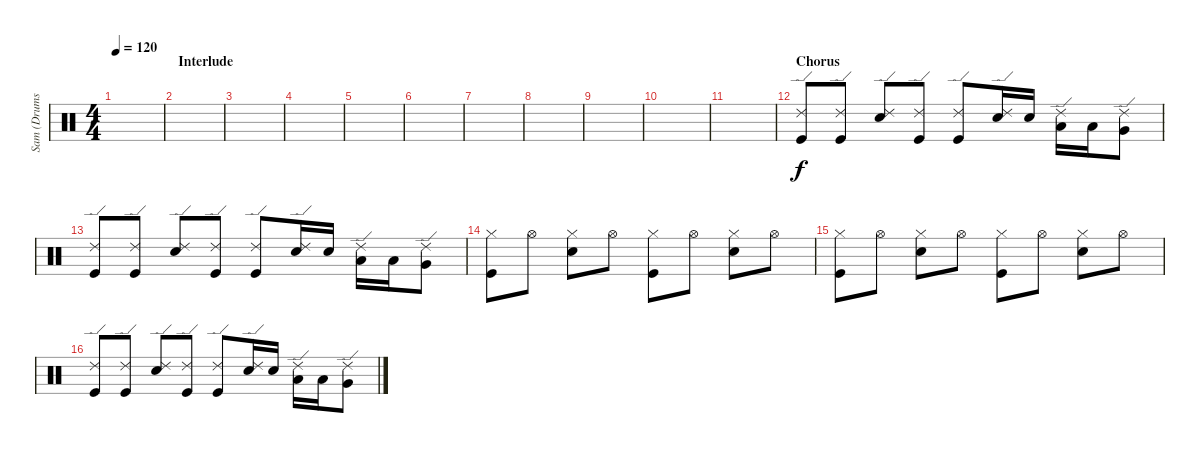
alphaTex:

\track ("Sam (Drums)" "Sam (Drums") {instrument percussion}
\staff {score}
\articulation defaults
\ts (4 4)
\tempo 120
\clef neutral
\ks c
|
\section ("" "Interlude")
|
|
|
|
|
|
|
|
|
|
\section ("" "Chorus")
("Ride (edge) 2" "Kick (hit)").8 ("Ride (edge) 2" "Kick (hit)").8 ("Ride (edge) 2" "Snare (hit) 2").8 ("Ride (edge) 2" "Kick (hit)").8 ("Ride (edge) 2" "Kick (hit)").8 ("Ride (edge) 2" "Snare (hit) 2").16 "Snare (hit) 2".16 ("Ride (edge) 2" "Low Tom (hit)").16 "Low Tom (hit)".16 ("Ride (edge) 2" "Very Low Tom (hit)").8 |
("Ride (edge) 2" "Kick (hit)").8 ("Ride (edge) 2" "Kick (hit)").8 ("Ride (edge) 2" "Snare (hit) 2").8 ("Ride (edge) 2" "Kick (hit)").8 ("Ride (edge) 2" "Kick (hit)").8 ("Ride (edge) 2" "Snare (hit) 2").16 "Snare (hit) 2".16 ("Ride (edge) 2" "Low Tom (hit)").16 "Low Tom (hit)".16 ("Ride (edge) 2" "Very Low Tom (hit)").8 |
("Hi-Hat (closed)" "Kick (hit)").8 "Hi-Hat (open)".8 ("Hi-Hat (closed)" "Snare (hit) 2").8 "Hi-Hat (open)".8 ("Hi-Hat (closed)" "Kick (hit)").8 "Hi-Hat (open)".8 ("Hi-Hat (closed)" "Snare (hit) 2").8 "Hi-Hat (open)".8 |
("Hi-Hat (closed)" "Kick (hit)").8 "Hi-Hat (open)".8 ("Hi-Hat (closed)" "Snare (hit) 2").8 "Hi-Hat (open)".8 ("Hi-Hat (closed)" "Kick (hit)").8 "Hi-Hat (open)".8 ("Hi-Hat (closed)" "Snare (hit) 2").8 "Hi-Hat (open)".8 |
("Ride (edge) 2" "Kick (hit)").8 ("Ride (edge) 2" "Kick (hit)").8 ("Ride (edge) 2" "Snare (hit) 2").8 ("Ride (edge) 2" "Kick (hit)").8 ("Ride (edge) 2" "Kick (hit)").8 ("Ride (edge) 2" "Snare (hit) 2").16 "Snare (hit) 2".16 ("Ride (edge) 2" "Low Tom (hit)").16 "Low Tom (hit)".16 ("Ride (edge) 2" "Very Low Tom (hit)").8
